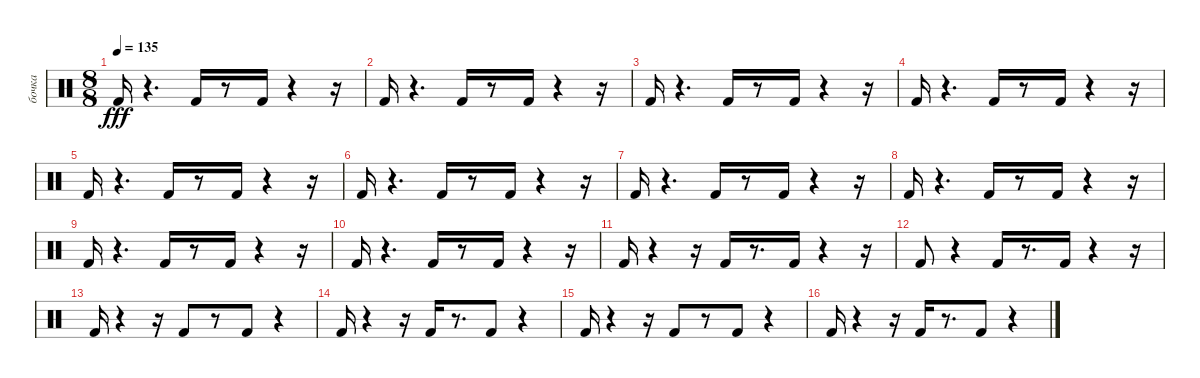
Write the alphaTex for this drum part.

\track ("бочка" "бочка") {instrument percussion}
\staff {score}
\articulation defaults
\ts (8 8)
\tempo 135
\clef neutral
\ks c "Kick (hit) 2".16{dy fff}
r.4{d} "Kick (hit) 2".16 r.8 "Kick (hit) 2".16 r.4 r.16 |
"Kick (hit) 2".16 r.4{d} "Kick (hit) 2".16 r.8 "Kick (hit) 2".16 r.4 r.16 |
"Kick (hit) 2".16 r.4{d} "Kick (hit) 2".16 r.8 "Kick (hit) 2".16 r.4 r.16 |
"Kick (hit) 2".16 r.4{d} "Kick (hit) 2".16 r.8 "Kick (hit) 2".16 r.4 r.16 |
"Kick (hit) 2".16 r.4{d} "Kick (hit) 2".16 r.8 "Kick (hit) 2".16 r.4 r.16 |
"Kick (hit) 2".16 r.4{d} "Kick (hit) 2".16 r.8 "Kick (hit) 2".16 r.4 r.16 |
"Kick (hit) 2".16 r.4{d} "Kick (hit) 2".16 r.8 "Kick (hit) 2".16 r.4 r.16 |
"Kick (hit) 2".16 r.4{d} "Kick (hit) 2".16 r.8 "Kick (hit) 2".16 r.4 r.16 |
"Kick (hit) 2".16 r.4{d} "Kick (hit) 2".16 r.8 "Kick (hit) 2".16 r.4 r.16 |
"Kick (hit) 2".16 r.4{d} "Kick (hit) 2".16 r.8 "Kick (hit) 2".16 r.4 r.16 |
"Kick (hit) 2".16 r.4 r.16 "Kick (hit) 2".16 r.8{d} "Kick (hit) 2".16 r.4 r.16 |
"Kick (hit) 2".8 r.4 "Kick (hit) 2".16 r.8{d} "Kick (hit) 2".16 r.4 r.16 |
"Kick (hit) 2".16 r.4 r.16 "Kick (hit) 2".8 r.8 "Kick (hit) 2".8 r.4 |
"Kick (hit) 2".16 r.4 r.16 "Kick (hit) 2".16 r.8{d} "Kick (hit) 2".8 r.4 |
"Kick (hit) 2".16 r.4 r.16 "Kick (hit) 2".8 r.8 "Kick (hit) 2".8 r.4 |
"Kick (hit) 2".16 r.4 r.16 "Kick (hit) 2".16 r.8{d} "Kick (hit) 2".8 r.4
